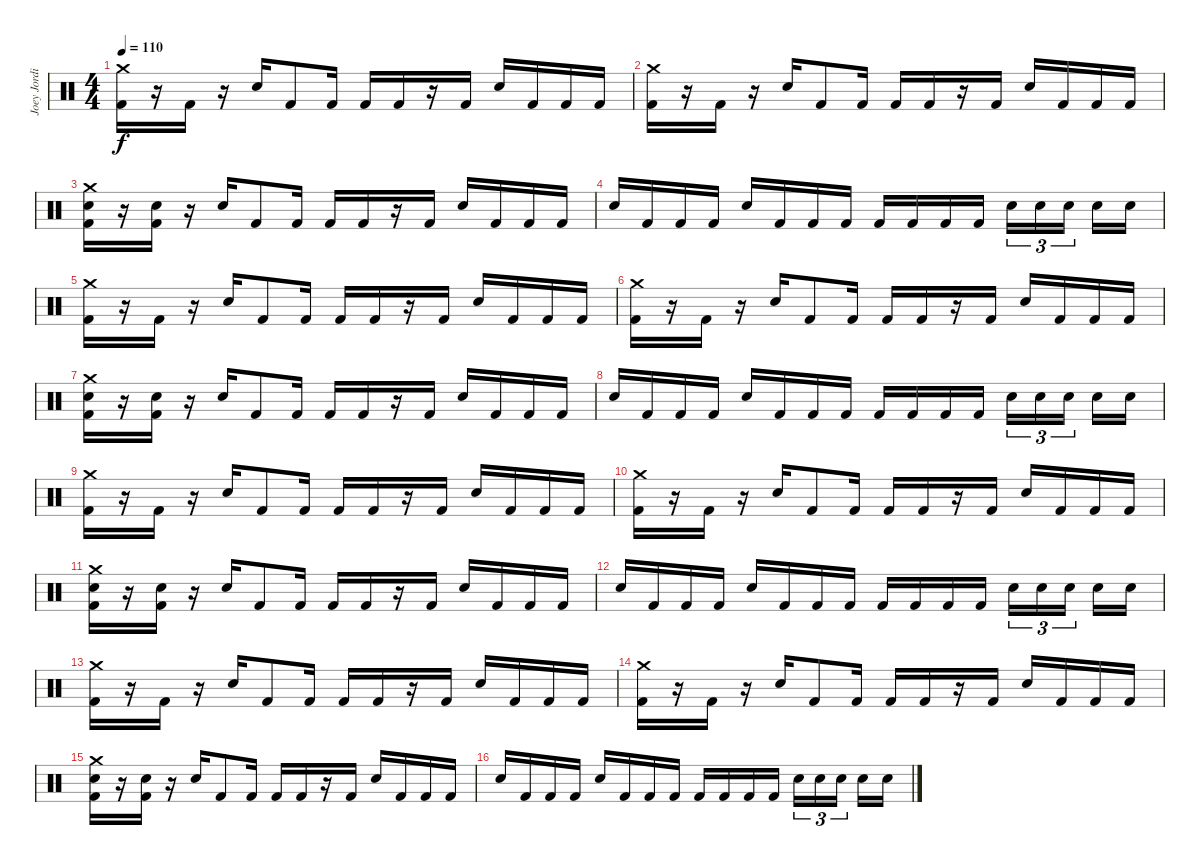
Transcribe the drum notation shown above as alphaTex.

\track ("Joey Jordison" "Joey Jordi") {instrument percussion}
\staff {score}
\articulation defaults
\ts (4 4)
\tempo 110
\clef neutral
\ks c
("Crash medium (hit)" "Kick (hit) 2").16{dy f} r.16 "Kick (hit) 2".16 r.16 "Snare (hit) 2".16 "Kick (hit) 2".8 "Kick (hit) 2".16 "Kick (hit) 2".16 "Kick (hit) 2".16 r.16 "Kick (hit) 2".16 "Snare (hit) 2".16 "Kick (hit) 2".16 "Kick (hit) 2".16 "Kick (hit) 2".16 |
("Crash medium (hit)" "Kick (hit) 2").16 r.16 "Kick (hit) 2".16 r.16 "Snare (hit) 2".16 "Kick (hit) 2".8 "Kick (hit) 2".16 "Kick (hit) 2".16 "Kick (hit) 2".16 r.16 "Kick (hit) 2".16 "Snare (hit) 2".16 "Kick (hit) 2".16 "Kick (hit) 2".16 "Kick (hit) 2".16 |
("Crash medium (hit)" "Snare (hit) 2" "Kick (hit) 2").16 r.16 ("Snare (hit) 2" "Kick (hit) 2").16 r.16 "Snare (hit) 2".16 "Kick (hit) 2".8 "Kick (hit) 2".16 "Kick (hit) 2".16 "Kick (hit) 2".16 r.16 "Kick (hit) 2".16 "Snare (hit) 2".16 "Kick (hit) 2".16 "Kick (hit) 2".16 "Kick (hit) 2".16 |
"Snare (hit) 2".16 "Kick (hit) 2".16 "Kick (hit) 2".16 "Kick (hit) 2".16 "Snare (hit) 2".16 "Kick (hit) 2".16 "Kick (hit) 2".16 "Kick (hit) 2".16 "Kick (hit) 2".16 "Kick (hit) 2".16 "Kick (hit) 2".16 "Kick (hit) 2".16 "Snare (hit) 2".16{tu (3 2)} "Snare (hit) 2".16{tu (3 2)} "Snare (hit) 2".16{tu (3 2)} "Snare (hit) 2".16 "Snare (hit) 2".16 |
("Crash medium (hit)" "Kick (hit) 2").16 r.16 "Kick (hit) 2".16 r.16 "Snare (hit) 2".16 "Kick (hit) 2".8 "Kick (hit) 2".16 "Kick (hit) 2".16 "Kick (hit) 2".16 r.16 "Kick (hit) 2".16 "Snare (hit) 2".16 "Kick (hit) 2".16 "Kick (hit) 2".16 "Kick (hit) 2".16 |
("Crash medium (hit)" "Kick (hit) 2").16 r.16 "Kick (hit) 2".16 r.16 "Snare (hit) 2".16 "Kick (hit) 2".8 "Kick (hit) 2".16 "Kick (hit) 2".16 "Kick (hit) 2".16 r.16 "Kick (hit) 2".16 "Snare (hit) 2".16 "Kick (hit) 2".16 "Kick (hit) 2".16 "Kick (hit) 2".16 |
("Crash medium (hit)" "Snare (hit) 2" "Kick (hit) 2").16 r.16 ("Snare (hit) 2" "Kick (hit) 2").16 r.16 "Snare (hit) 2".16 "Kick (hit) 2".8 "Kick (hit) 2".16 "Kick (hit) 2".16 "Kick (hit) 2".16 r.16 "Kick (hit) 2".16 "Snare (hit) 2".16 "Kick (hit) 2".16 "Kick (hit) 2".16 "Kick (hit) 2".16 |
"Snare (hit) 2".16 "Kick (hit) 2".16 "Kick (hit) 2".16 "Kick (hit) 2".16 "Snare (hit) 2".16 "Kick (hit) 2".16 "Kick (hit) 2".16 "Kick (hit) 2".16 "Kick (hit) 2".16 "Kick (hit) 2".16 "Kick (hit) 2".16 "Kick (hit) 2".16 "Snare (hit) 2".16{tu (3 2)} "Snare (hit) 2".16{tu (3 2)} "Snare (hit) 2".16{tu (3 2)} "Snare (hit) 2".16 "Snare (hit) 2".16 |
("Crash medium (hit)" "Kick (hit) 2").16 r.16 "Kick (hit) 2".16 r.16 "Snare (hit) 2".16 "Kick (hit) 2".8 "Kick (hit) 2".16 "Kick (hit) 2".16 "Kick (hit) 2".16 r.16 "Kick (hit) 2".16 "Snare (hit) 2".16 "Kick (hit) 2".16 "Kick (hit) 2".16 "Kick (hit) 2".16 |
("Crash medium (hit)" "Kick (hit) 2").16 r.16 "Kick (hit) 2".16 r.16 "Snare (hit) 2".16 "Kick (hit) 2".8 "Kick (hit) 2".16 "Kick (hit) 2".16 "Kick (hit) 2".16 r.16 "Kick (hit) 2".16 "Snare (hit) 2".16 "Kick (hit) 2".16 "Kick (hit) 2".16 "Kick (hit) 2".16 |
("Crash medium (hit)" "Snare (hit) 2" "Kick (hit) 2").16 r.16 ("Snare (hit) 2" "Kick (hit) 2").16 r.16 "Snare (hit) 2".16 "Kick (hit) 2".8 "Kick (hit) 2".16 "Kick (hit) 2".16 "Kick (hit) 2".16 r.16 "Kick (hit) 2".16 "Snare (hit) 2".16 "Kick (hit) 2".16 "Kick (hit) 2".16 "Kick (hit) 2".16 |
"Snare (hit) 2".16 "Kick (hit) 2".16 "Kick (hit) 2".16 "Kick (hit) 2".16 "Snare (hit) 2".16 "Kick (hit) 2".16 "Kick (hit) 2".16 "Kick (hit) 2".16 "Kick (hit) 2".16 "Kick (hit) 2".16 "Kick (hit) 2".16 "Kick (hit) 2".16 "Snare (hit) 2".16{tu (3 2)} "Snare (hit) 2".16{tu (3 2)} "Snare (hit) 2".16{tu (3 2)} "Snare (hit) 2".16 "Snare (hit) 2".16 |
("Crash medium (hit)" "Kick (hit) 2").16 r.16 "Kick (hit) 2".16 r.16 "Snare (hit) 2".16 "Kick (hit) 2".8 "Kick (hit) 2".16 "Kick (hit) 2".16 "Kick (hit) 2".16 r.16 "Kick (hit) 2".16 "Snare (hit) 2".16 "Kick (hit) 2".16 "Kick (hit) 2".16 "Kick (hit) 2".16 |
("Crash medium (hit)" "Kick (hit) 2").16 r.16 "Kick (hit) 2".16 r.16 "Snare (hit) 2".16 "Kick (hit) 2".8 "Kick (hit) 2".16 "Kick (hit) 2".16 "Kick (hit) 2".16 r.16 "Kick (hit) 2".16 "Snare (hit) 2".16 "Kick (hit) 2".16 "Kick (hit) 2".16 "Kick (hit) 2".16 |
("Crash medium (hit)" "Snare (hit) 2" "Kick (hit) 2").16 r.16 ("Snare (hit) 2" "Kick (hit) 2").16 r.16 "Snare (hit) 2".16 "Kick (hit) 2".8 "Kick (hit) 2".16 "Kick (hit) 2".16 "Kick (hit) 2".16 r.16 "Kick (hit) 2".16 "Snare (hit) 2".16 "Kick (hit) 2".16 "Kick (hit) 2".16 "Kick (hit) 2".16 |
"Snare (hit) 2".16 "Kick (hit) 2".16 "Kick (hit) 2".16 "Kick (hit) 2".16 "Snare (hit) 2".16 "Kick (hit) 2".16 "Kick (hit) 2".16 "Kick (hit) 2".16 "Kick (hit) 2".16 "Kick (hit) 2".16 "Kick (hit) 2".16 "Kick (hit) 2".16 "Snare (hit) 2".16{tu (3 2)} "Snare (hit) 2".16{tu (3 2)} "Snare (hit) 2".16{tu (3 2)} "Snare (hit) 2".16 "Snare (hit) 2".16
